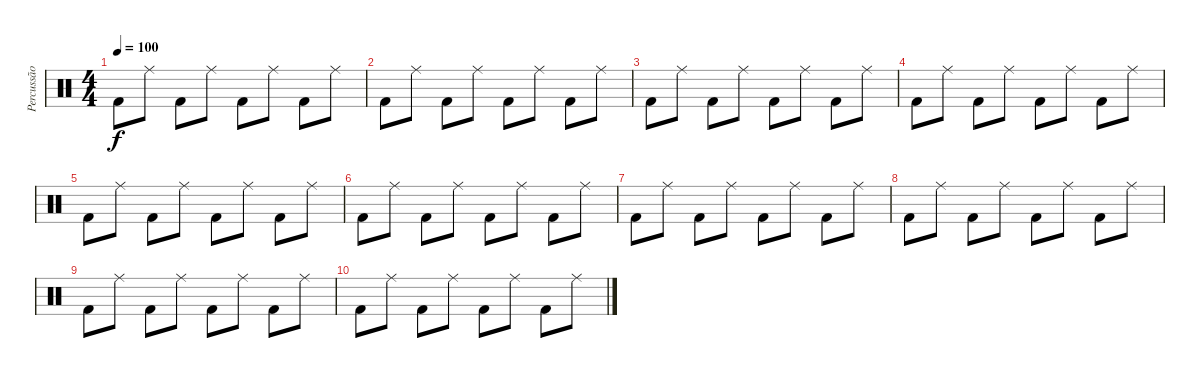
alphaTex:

\track ("Percussão" "Percussão") {instrument percussion}
\staff {score}
\articulation defaults
\ts (4 4)
\tempo 100
\clef neutral
\ks c "Kick (hit) 2".8{dy f} "Ride (middle)".8 "Kick (hit) 2".8 "Ride (middle)".8 "Kick (hit) 2".8 "Ride (middle)".8 "Kick (hit) 2".8 "Ride (middle)".8
|
"Kick (hit) 2".8 "Ride (middle)".8 "Kick (hit) 2".8 "Ride (middle)".8 "Kick (hit) 2".8 "Ride (middle)".8 "Kick (hit) 2".8 "Ride (middle)".8 |
"Kick (hit) 2".8 "Ride (middle)".8 "Kick (hit) 2".8 "Ride (middle)".8 "Kick (hit) 2".8 "Ride (middle)".8 "Kick (hit) 2".8 "Ride (middle)".8 |
"Kick (hit) 2".8 "Ride (middle)".8 "Kick (hit) 2".8 "Ride (middle)".8 "Kick (hit) 2".8 "Ride (middle)".8 "Kick (hit) 2".8 "Ride (middle)".8 |
"Kick (hit) 2".8 "Ride (middle)".8 "Kick (hit) 2".8 "Ride (middle)".8 "Kick (hit) 2".8 "Ride (middle)".8 "Kick (hit) 2".8 "Ride (middle)".8 |
"Kick (hit) 2".8 "Ride (middle)".8 "Kick (hit) 2".8 "Ride (middle)".8 "Kick (hit) 2".8 "Ride (middle)".8 "Kick (hit) 2".8 "Ride (middle)".8 |
"Kick (hit) 2".8 "Ride (middle)".8 "Kick (hit) 2".8 "Ride (middle)".8 "Kick (hit) 2".8 "Ride (middle)".8 "Kick (hit) 2".8 "Ride (middle)".8 |
"Kick (hit) 2".8 "Ride (middle)".8 "Kick (hit) 2".8 "Ride (middle)".8 "Kick (hit) 2".8 "Ride (middle)".8 "Kick (hit) 2".8 "Ride (middle)".8 |
"Kick (hit) 2".8 "Ride (middle)".8 "Kick (hit) 2".8 "Ride (middle)".8 "Kick (hit) 2".8 "Ride (middle)".8 "Kick (hit) 2".8 "Ride (middle)".8 |
"Kick (hit) 2".8 "Ride (middle)".8 "Kick (hit) 2".8 "Ride (middle)".8 "Kick (hit) 2".8 "Ride (middle)".8 "Kick (hit) 2".8 "Ride (middle)".8
